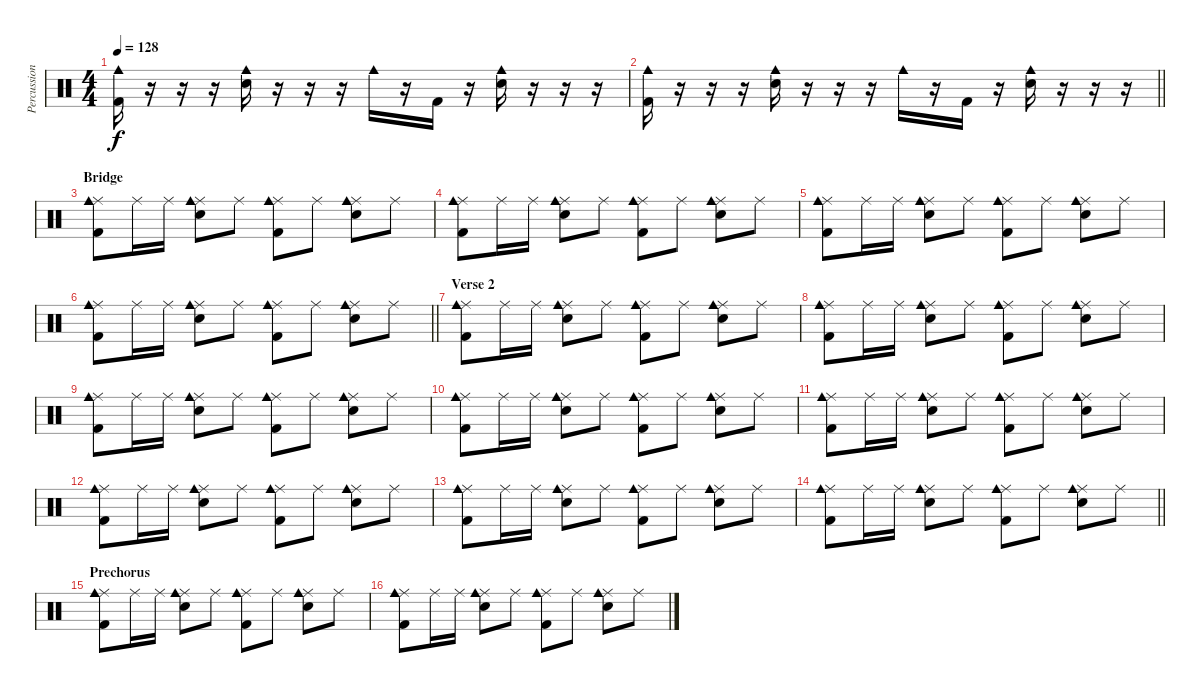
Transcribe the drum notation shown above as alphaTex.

\track ("Percussion" "Percussion") {instrument percussion}
\staff {score}
\articulation defaults
\ts (4 4)
\tempo 128
\clef neutral
\ks c
("Cowbell medium (hit)" "Kick (hit) 2").16{dy f} r.16 r.16 r.16 ("Cowbell medium (hit)" "Snare (hit) 2").16 r.16 r.16 r.16 "Cowbell medium (hit)".16 r.16 "Kick (hit) 2".16 r.16 ("Cowbell medium (hit)" "Snare (hit) 2").16 r.16 r.16 r.16 |
\barLineRight lightlight
("Cowbell medium (hit)" "Kick (hit) 2").16 r.16 r.16 r.16 ("Cowbell medium (hit)" "Snare (hit) 2").16 r.16 r.16 r.16 "Cowbell medium (hit)".16 r.16 "Kick (hit) 2".16 r.16 ("Cowbell medium (hit)" "Snare (hit) 2").16 r.16 r.16 r.16 |
\section ("" "Bridge")
("Ride (middle)" "Cowbell medium (hit)" "Kick (hit) 2").8 "Ride (middle)".16 "Ride (middle)".16 ("Ride (middle)" "Cowbell medium (hit)" "Snare (hit) 2").8 "Ride (middle)".8 ("Ride (middle)" "Cowbell medium (hit)" "Kick (hit) 2").8 "Ride (middle)".8 ("Ride (middle)" "Cowbell medium (hit)" "Snare (hit) 2").8 "Ride (middle)".8 |
("Ride (middle)" "Cowbell medium (hit)" "Kick (hit) 2").8 "Ride (middle)".16 "Ride (middle)".16 ("Ride (middle)" "Cowbell medium (hit)" "Snare (hit) 2").8 "Ride (middle)".8 ("Ride (middle)" "Cowbell medium (hit)" "Kick (hit) 2").8 "Ride (middle)".8 ("Ride (middle)" "Cowbell medium (hit)" "Snare (hit) 2").8 "Ride (middle)".8 |
("Ride (middle)" "Cowbell medium (hit)" "Kick (hit) 2").8 "Ride (middle)".16 "Ride (middle)".16 ("Ride (middle)" "Cowbell medium (hit)" "Snare (hit) 2").8 "Ride (middle)".8 ("Ride (middle)" "Cowbell medium (hit)" "Kick (hit) 2").8 "Ride (middle)".8 ("Ride (middle)" "Cowbell medium (hit)" "Snare (hit) 2").8 "Ride (middle)".8 |
\barLineRight lightlight
("Ride (middle)" "Cowbell medium (hit)" "Kick (hit) 2").8 "Ride (middle)".16 "Ride (middle)".16 ("Ride (middle)" "Cowbell medium (hit)" "Snare (hit) 2").8 "Ride (middle)".8 ("Ride (middle)" "Cowbell medium (hit)" "Kick (hit) 2").8 "Ride (middle)".8 ("Ride (middle)" "Cowbell medium (hit)" "Snare (hit) 2").8 "Ride (middle)".8 |
\section ("" "Verse 2")
("Ride (middle)" "Cowbell medium (hit)" "Kick (hit) 2").8 "Ride (middle)".16 "Ride (middle)".16 ("Ride (middle)" "Cowbell medium (hit)" "Snare (hit) 2").8 "Ride (middle)".8 ("Ride (middle)" "Cowbell medium (hit)" "Kick (hit) 2").8 "Ride (middle)".8 ("Ride (middle)" "Cowbell medium (hit)" "Snare (hit) 2").8 "Ride (middle)".8 |
("Ride (middle)" "Cowbell medium (hit)" "Kick (hit) 2").8 "Ride (middle)".16 "Ride (middle)".16 ("Ride (middle)" "Cowbell medium (hit)" "Snare (hit) 2").8 "Ride (middle)".8 ("Ride (middle)" "Cowbell medium (hit)" "Kick (hit) 2").8 "Ride (middle)".8 ("Ride (middle)" "Cowbell medium (hit)" "Snare (hit) 2").8 "Ride (middle)".8 |
("Ride (middle)" "Cowbell medium (hit)" "Kick (hit) 2").8 "Ride (middle)".16 "Ride (middle)".16 ("Ride (middle)" "Cowbell medium (hit)" "Snare (hit) 2").8 "Ride (middle)".8 ("Ride (middle)" "Cowbell medium (hit)" "Kick (hit) 2").8 "Ride (middle)".8 ("Ride (middle)" "Cowbell medium (hit)" "Snare (hit) 2").8 "Ride (middle)".8 |
("Ride (middle)" "Cowbell medium (hit)" "Kick (hit) 2").8 "Ride (middle)".16 "Ride (middle)".16 ("Ride (middle)" "Cowbell medium (hit)" "Snare (hit) 2").8 "Ride (middle)".8 ("Ride (middle)" "Cowbell medium (hit)" "Kick (hit) 2").8 "Ride (middle)".8 ("Ride (middle)" "Cowbell medium (hit)" "Snare (hit) 2").8 "Ride (middle)".8 |
("Ride (middle)" "Cowbell medium (hit)" "Kick (hit) 2").8 "Ride (middle)".16 "Ride (middle)".16 ("Ride (middle)" "Cowbell medium (hit)" "Snare (hit) 2").8 "Ride (middle)".8 ("Ride (middle)" "Cowbell medium (hit)" "Kick (hit) 2").8 "Ride (middle)".8 ("Ride (middle)" "Cowbell medium (hit)" "Snare (hit) 2").8 "Ride (middle)".8 |
("Ride (middle)" "Cowbell medium (hit)" "Kick (hit) 2").8 "Ride (middle)".16 "Ride (middle)".16 ("Ride (middle)" "Cowbell medium (hit)" "Snare (hit) 2").8 "Ride (middle)".8 ("Ride (middle)" "Cowbell medium (hit)" "Kick (hit) 2").8 "Ride (middle)".8 ("Ride (middle)" "Cowbell medium (hit)" "Snare (hit) 2").8 "Ride (middle)".8 |
("Ride (middle)" "Cowbell medium (hit)" "Kick (hit) 2").8 "Ride (middle)".16 "Ride (middle)".16 ("Ride (middle)" "Cowbell medium (hit)" "Snare (hit) 2").8 "Ride (middle)".8 ("Ride (middle)" "Cowbell medium (hit)" "Kick (hit) 2").8 "Ride (middle)".8 ("Ride (middle)" "Cowbell medium (hit)" "Snare (hit) 2").8 "Ride (middle)".8 |
\barLineRight lightlight
("Ride (middle)" "Cowbell medium (hit)" "Kick (hit) 2").8 "Ride (middle)".16 "Ride (middle)".16 ("Ride (middle)" "Cowbell medium (hit)" "Snare (hit) 2").8 "Ride (middle)".8 ("Ride (middle)" "Cowbell medium (hit)" "Kick (hit) 2").8 "Ride (middle)".8 ("Ride (middle)" "Cowbell medium (hit)" "Snare (hit) 2").8 "Ride (middle)".8 |
\section ("" "Prechorus")
("Ride (middle)" "Cowbell medium (hit)" "Kick (hit) 2").8 "Ride (middle)".16 "Ride (middle)".16 ("Ride (middle)" "Cowbell medium (hit)" "Snare (hit) 2").8 "Ride (middle)".8 ("Ride (middle)" "Cowbell medium (hit)" "Kick (hit) 2").8 "Ride (middle)".8 ("Ride (middle)" "Cowbell medium (hit)" "Snare (hit) 2").8 "Ride (middle)".8 |
("Ride (middle)" "Cowbell medium (hit)" "Kick (hit) 2").8 "Ride (middle)".16 "Ride (middle)".16 ("Ride (middle)" "Cowbell medium (hit)" "Snare (hit) 2").8 "Ride (middle)".8 ("Ride (middle)" "Cowbell medium (hit)" "Kick (hit) 2").8 "Ride (middle)".8 ("Ride (middle)" "Cowbell medium (hit)" "Snare (hit) 2").8 "Ride (middle)".8
